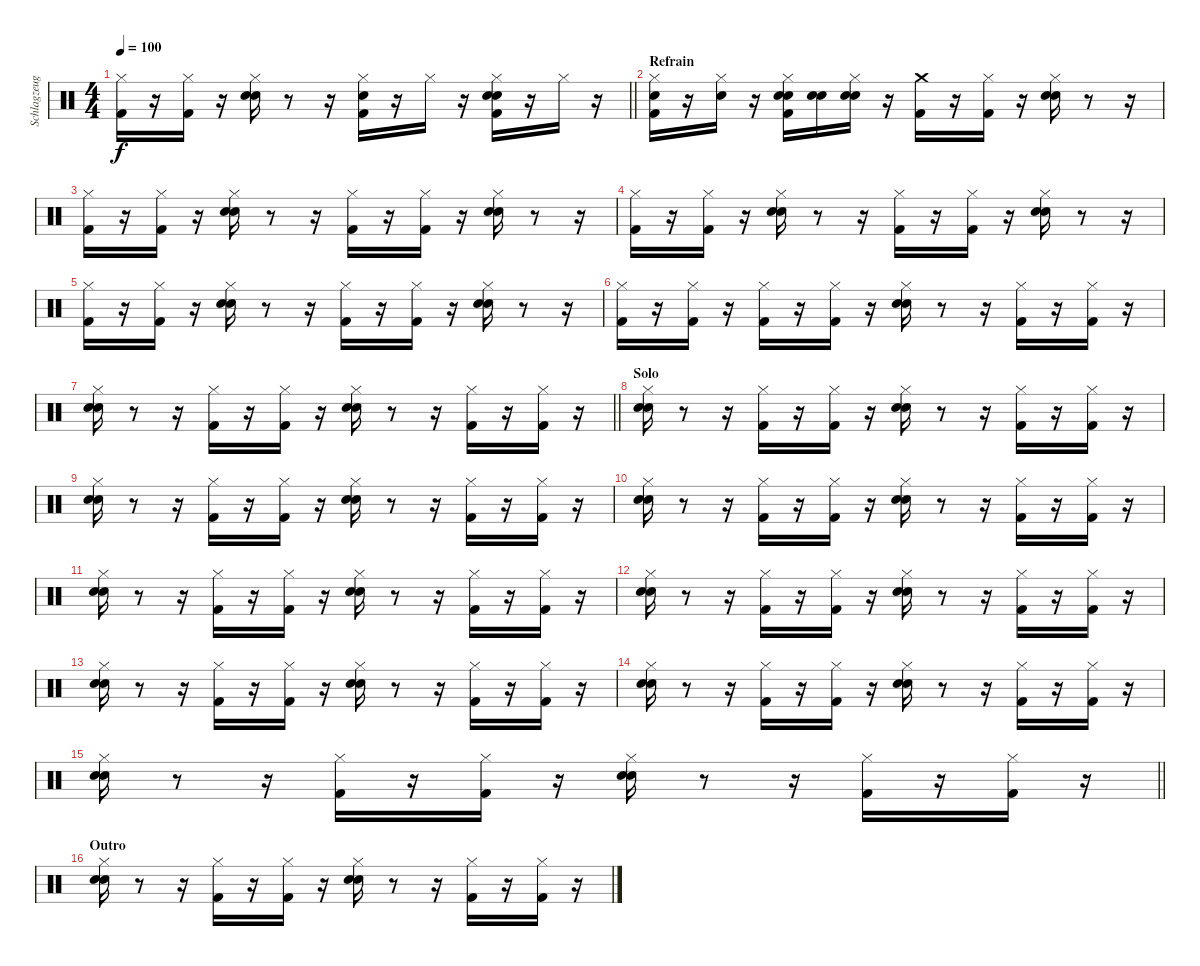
\track ("Schlagzeug" "Schlagzeug") {instrument percussion}
\staff {score}
\articulation defaults
\ts (4 4)
\tempo 100
\clef neutral
\barLineRight lightlight
\ks c
("Hi-Hat (closed)" "Kick (hit) 2").16{dy f} r.16 ("Hi-Hat (closed)" "Kick (hit) 2").16 r.16 ("Snare (hit) 2" "Hand Clap (hit)" "Hi-Hat (closed)").16 r.8 r.16 ("Kick (hit) 2" "Snare (hit) 2" "Hi-Hat (closed)").16 r.16 "Hi-Hat (closed)".16 r.16 ("Hi-Hat (closed)" "Hand Clap (hit)" "Snare (hit) 2" "Kick (hit) 2").16 r.16 "Hi-Hat (closed)".16 r.16 |
\section ("" "Refrain")
("Kick (hit) 2" "Hi-Hat (closed)" "Snare (hit) 2").16 r.16 ("Hi-Hat (closed)" "Snare (hit) 2").16 r.16 ("Kick (hit) 2" "Hi-Hat (closed)" "Snare (hit) 2" "Hand Clap (hit)").16 ("Snare (hit)" "Snare (hit) 2").16 ("Snare (hit)" "Snare (hit) 2" "Hi-Hat (closed)").16 r.16 ("Kick (hit) 2" "Crash medium (hit)").16 r.16 ("Hi-Hat (closed)" "Kick (hit) 2").16 r.16 ("Hi-Hat (closed)" "Snare (hit) 2" "Hand Clap (hit)").16 r.8 r.16 |
("Kick (hit) 2" "Hi-Hat (closed)").16 r.16 ("Hi-Hat (closed)" "Kick (hit) 2").16 r.16 ("Hand Clap (hit)" "Snare (hit) 2" "Hi-Hat (closed)").16 r.8 r.16 ("Kick (hit) 2" "Hi-Hat (closed)").16 r.16 ("Hi-Hat (closed)" "Kick (hit) 2").16 r.16 ("Hand Clap (hit)" "Snare (hit) 2" "Hi-Hat (closed)").16 r.8 r.16 |
("Hi-Hat (closed)" "Kick (hit) 2").16 r.16 ("Kick (hit) 2" "Hi-Hat (closed)").16 r.16 ("Snare (hit) 2" "Hi-Hat (closed)" "Hand Clap (hit)").16 r.8 r.16 ("Kick (hit) 2" "Hi-Hat (closed)").16 r.16 ("Kick (hit) 2" "Hi-Hat (closed)").16 r.16 ("Hi-Hat (closed)" "Hand Clap (hit)" "Snare (hit) 2").16 r.8 r.16 |
("Kick (hit) 2" "Hi-Hat (closed)").16 r.16 ("Kick (hit) 2" "Hi-Hat (closed)").16 r.16 ("Hand Clap (hit)" "Snare (hit) 2" "Hi-Hat (closed)").16 r.8 r.16 ("Kick (hit) 2" "Hi-Hat (closed)").16 r.16 ("Hi-Hat (closed)" "Kick (hit) 2").16 r.16 ("Hi-Hat (closed)" "Snare (hit) 2" "Hand Clap (hit)").16 r.8 r.16 |
("Kick (hit) 2" "Hi-Hat (closed)").16 r.16 ("Hi-Hat (closed)" "Kick (hit) 2").16 r.16 ("Kick (hit) 2" "Hi-Hat (closed)").16 r.16 ("Hi-Hat (closed)" "Kick (hit) 2").16 r.16 ("Hand Clap (hit)" "Snare (hit) 2" "Hi-Hat (closed)").16 r.8 r.16 ("Kick (hit) 2" "Hi-Hat (closed)").16 r.16 ("Kick (hit) 2" "Hi-Hat (closed)").16 r.16 |
\barLineRight lightlight
("Snare (hit) 2" "Hi-Hat (closed)" "Hand Clap (hit)").16 r.8 r.16 ("Hi-Hat (closed)" "Kick (hit) 2").16 r.16 ("Hi-Hat (closed)" "Kick (hit) 2").16 r.16 ("Hand Clap (hit)" "Hi-Hat (closed)" "Snare (hit) 2").16 r.8 r.16 ("Hi-Hat (closed)" "Kick (hit) 2").16 r.16 ("Kick (hit) 2" "Hi-Hat (closed)").16 r.16 |
\section ("" "Solo")
("Snare (hit) 2" "Hand Clap (hit)" "Hi-Hat (closed)").16 r.8 r.16 ("Hi-Hat (closed)" "Kick (hit) 2").16 r.16 ("Hi-Hat (closed)" "Kick (hit) 2").16 r.16 ("Hi-Hat (closed)" "Hand Clap (hit)" "Snare (hit) 2").16 r.8 r.16 ("Hi-Hat (closed)" "Kick (hit) 2").16 r.16 ("Hi-Hat (closed)" "Kick (hit) 2").16 r.16 |
("Hand Clap (hit)" "Hi-Hat (closed)" "Snare (hit) 2").16 r.8 r.16 ("Kick (hit) 2" "Hi-Hat (closed)").16 r.16 ("Hi-Hat (closed)" "Kick (hit) 2").16 r.16 ("Hi-Hat (closed)" "Snare (hit) 2" "Hand Clap (hit)").16 r.8 r.16 ("Hi-Hat (closed)" "Kick (hit) 2").16 r.16 ("Kick (hit) 2" "Hi-Hat (closed)").16 r.16 |
("Hand Clap (hit)" "Hi-Hat (closed)" "Snare (hit) 2").16 r.8 r.16 ("Kick (hit) 2" "Hi-Hat (closed)").16 r.16 ("Kick (hit) 2" "Hi-Hat (closed)").16 r.16 ("Snare (hit) 2" "Hand Clap (hit)" "Hi-Hat (closed)").16 r.8 r.16 ("Hi-Hat (closed)" "Kick (hit) 2").16 r.16 ("Hi-Hat (closed)" "Kick (hit) 2").16 r.16 |
("Snare (hit) 2" "Hi-Hat (closed)" "Hand Clap (hit)").16 r.8 r.16 ("Kick (hit) 2" "Hi-Hat (closed)").16 r.16 ("Hi-Hat (closed)" "Kick (hit) 2").16 r.16 ("Snare (hit) 2" "Hand Clap (hit)" "Hi-Hat (closed)").16 r.8 r.16 ("Hi-Hat (closed)" "Kick (hit) 2").16 r.16 ("Hi-Hat (closed)" "Kick (hit) 2").16 r.16 |
("Hand Clap (hit)" "Snare (hit) 2" "Hi-Hat (closed)").16 r.8 r.16 ("Kick (hit) 2" "Hi-Hat (closed)").16 r.16 ("Kick (hit) 2" "Hi-Hat (closed)").16 r.16 ("Snare (hit) 2" "Hi-Hat (closed)" "Hand Clap (hit)").16 r.8 r.16 ("Kick (hit) 2" "Hi-Hat (closed)").16 r.16 ("Hi-Hat (closed)" "Kick (hit) 2").16 r.16 |
("Snare (hit) 2" "Hi-Hat (closed)" "Hand Clap (hit)").16 r.8 r.16 ("Kick (hit) 2" "Hi-Hat (closed)").16 r.16 ("Kick (hit) 2" "Hi-Hat (closed)").16 r.16 ("Hi-Hat (closed)" "Snare (hit) 2" "Hand Clap (hit)").16 r.8 r.16 ("Hi-Hat (closed)" "Kick (hit) 2").16 r.16 ("Hi-Hat (closed)" "Kick (hit) 2").16 r.16 |
("Hi-Hat (closed)" "Hand Clap (hit)" "Snare (hit) 2").16 r.8 r.16 ("Hi-Hat (closed)" "Kick (hit) 2").16 r.16 ("Kick (hit) 2" "Hi-Hat (closed)").16 r.16 ("Hi-Hat (closed)" "Snare (hit) 2" "Hand Clap (hit)").16 r.8 r.16 ("Kick (hit) 2" "Hi-Hat (closed)").16 r.16 ("Hi-Hat (closed)" "Kick (hit) 2").16 r.16 |
\barLineRight lightlight
("Snare (hit) 2" "Hand Clap (hit)" "Hi-Hat (closed)").16 r.8 r.16 ("Kick (hit) 2" "Hi-Hat (closed)").16 r.16 ("Kick (hit) 2" "Hi-Hat (closed)").16 r.16 ("Snare (hit) 2" "Hand Clap (hit)" "Hi-Hat (closed)").16 r.8 r.16 ("Hi-Hat (closed)" "Kick (hit) 2").16 r.16 ("Kick (hit) 2" "Hi-Hat (closed)").16 r.16 |
\section ("" "Outro")
("Hi-Hat (closed)" "Snare (hit) 2" "Hand Clap (hit)").16 r.8 r.16 ("Kick (hit) 2" "Hi-Hat (closed)").16 r.16 ("Hi-Hat (closed)" "Kick (hit) 2").16 r.16 ("Hand Clap (hit)" "Hi-Hat (closed)" "Snare (hit) 2").16 r.8 r.16 ("Kick (hit) 2" "Hi-Hat (closed)").16 r.16 ("Hi-Hat (closed)" "Kick (hit) 2").16 r.16
